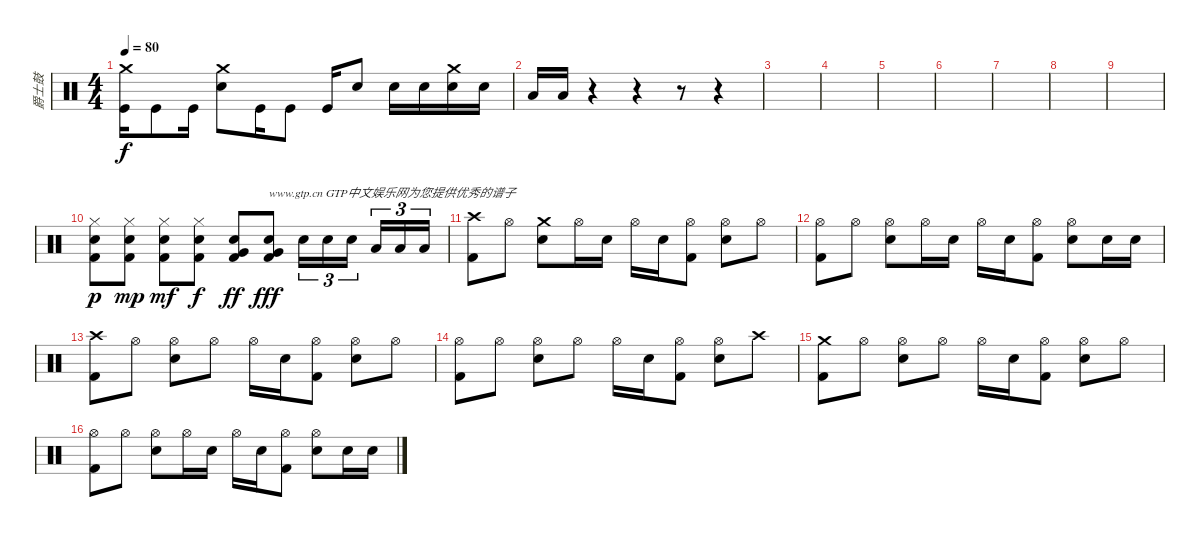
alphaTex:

\track ("爵士鼓" "爵士鼓") {instrument percussion}
\staff {score}
\articulation defaults
\ts (4 4)
\tempo 80
\clef neutral
\ks c
("Kick (hit)" "Crash medium (hit)").16{dy f} "Kick (hit)".8 "Kick (hit)".16 ("Snare (hit) 2" "Crash medium (hit)").8 "Kick (hit)".16 "Kick (hit)".8 "Kick (hit)".16 "Snare (hit) 2".8 "Snare (hit) 2".16 "Snare (hit) 2".16 ("Snare (hit) 2" "Crash medium (hit)").16 "Snare (hit) 2".16 |
"Low Tom (hit)".16 "Low Tom (hit)".16 r.4 r.4 r.8 r.4 |
|
|
|
|
|
|
|
("Hi-Hat (closed)" "Electric Snare (hit)" "Kick (hit) 2").8{dy p} ("Hi-Hat (closed)" "Electric Snare (hit)" "Kick (hit) 2").8{dy mp} ("Hi-Hat (closed)" "Electric Snare (hit)" "Kick (hit) 2").8{dy mf} ("Hi-Hat (closed)" "Electric Snare (hit)" "Kick (hit) 2").8{dy f} ("Very Low Tom (hit)" "Electric Snare (hit)" "Kick (hit) 2").8{dy ff} ("Very Low Tom (hit)" "Electric Snare (hit)" "Kick (hit) 2").8{txt "www.gtp.cn GTP中文娱乐网为您提供优秀的谱子" dy fff} "Electric Snare (hit)".16{tu (3 2)} "Electric Snare (hit)".16{tu (3 2)} "Electric Snare (hit)".16{tu (3 2) beam splitsecondary} "Low Tom (hit)".16{tu (3 2)} "Low Tom (hit)".16{tu (3 2)} "Low Tom (hit)".16{tu (3 2)} |
("Crash high (hit)" "Kick (hit) 2").8 "Hi-Hat (open)".8 ("Crash medium (hit)" "Electric Snare (hit)").8 "Hi-Hat (open)".16 "Electric Snare (hit)".16 "Hi-Hat (open)".16 "Electric Snare (hit)".16 ("Hi-Hat (open)" "Kick (hit) 2").8 ("Hi-Hat (open)" "Electric Snare (hit)").8 "Hi-Hat (open)".8 |
("Hi-Hat (open)" "Kick (hit) 2").8 "Hi-Hat (open)".8 ("Hi-Hat (open)" "Electric Snare (hit)").8 "Hi-Hat (open)".16 "Electric Snare (hit)".16 "Hi-Hat (open)".16 "Electric Snare (hit)".16 ("Hi-Hat (open)" "Kick (hit) 2").8 ("Hi-Hat (open)" "Electric Snare (hit)").8 "Electric Snare (hit)".16 "Electric Snare (hit)".16 |
("Crash high (hit)" "Kick (hit) 2").8 "Hi-Hat (open)".8 ("Hi-Hat (open)" "Electric Snare (hit)").8 "Hi-Hat (open)".8 "Hi-Hat (open)".16 "Electric Snare (hit)".16 ("Hi-Hat (open)" "Kick (hit) 2").8 ("Hi-Hat (open)" "Electric Snare (hit)").8 "Hi-Hat (open)".8 |
("Hi-Hat (open)" "Kick (hit) 2").8 "Hi-Hat (open)".8 ("Hi-Hat (open)" "Electric Snare (hit)").8 "Hi-Hat (open)".8 "Hi-Hat (open)".16 "Electric Snare (hit)".16 ("Hi-Hat (open)" "Kick (hit) 2").8 ("Hi-Hat (open)" "Electric Snare (hit)").8 "Crash high (hit)".8 |
("Crash medium (hit)" "Kick (hit) 2").8 "Hi-Hat (open)".8 ("Hi-Hat (open)" "Electric Snare (hit)").8 "Hi-Hat (open)".8 "Hi-Hat (open)".16 "Electric Snare (hit)".16 ("Hi-Hat (open)" "Kick (hit) 2").8 ("Hi-Hat (open)" "Electric Snare (hit)").8 "Hi-Hat (open)".8 |
("Hi-Hat (open)" "Kick (hit) 2").8 "Hi-Hat (open)".8 ("Hi-Hat (open)" "Electric Snare (hit)").8 "Hi-Hat (open)".16 "Electric Snare (hit)".16 "Hi-Hat (open)".16 "Electric Snare (hit)".16 ("Hi-Hat (open)" "Kick (hit) 2").8 ("Hi-Hat (open)" "Electric Snare (hit)").8 "Electric Snare (hit)".16 "Electric Snare (hit)".16
